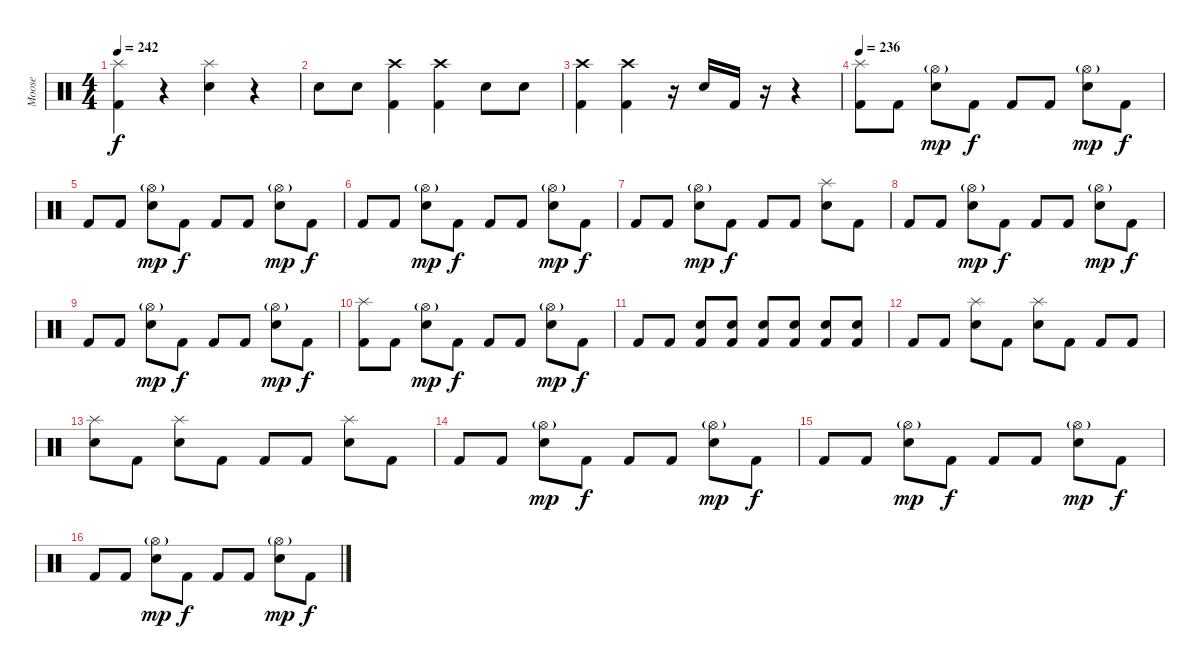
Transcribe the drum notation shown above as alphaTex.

\track ("Moose" "Moose") {instrument percussion}
\staff {score}
\articulation defaults
\ts (4 4)
\tempo 242
\clef neutral
\ks c
("Splash (hit)" "Kick (hit) 2").4{dy f} r.4 ("Splash (hit)" "Electric Snare (hit)").4 r.4 |
"Electric Snare (hit)".8 "Electric Snare (hit)".8 ("Crash high (hit)" "Kick (hit) 2").4 ("Crash high (hit)" "Kick (hit) 2").4 "Electric Snare (hit)".8 "Electric Snare (hit)".8 |
("Crash high (hit)" "Kick (hit) 2").4 ("Crash high (hit)" "Kick (hit) 2").4 r.16 "Electric Snare (hit)".16 "Kick (hit) 2".16 r.16 r.4 |
\tempo 236
("Splash (hit)" "Kick (hit) 2").8 "Kick (hit) 2".8 ("Hi-Hat (open)"{g} "Electric Snare (hit)").8{dy mp} "Kick (hit) 2".8{dy f} "Kick (hit) 2".8 "Kick (hit) 2".8 ("Hi-Hat (open)"{g} "Electric Snare (hit)").8{dy mp} "Kick (hit) 2".8{dy f} |
"Kick (hit) 2".8 "Kick (hit) 2".8 ("Hi-Hat (open)"{g} "Electric Snare (hit)").8{dy mp} "Kick (hit) 2".8{dy f} "Kick (hit) 2".8 "Kick (hit) 2".8 ("Hi-Hat (open)"{g} "Electric Snare (hit)").8{dy mp} "Kick (hit) 2".8{dy f} |
"Kick (hit) 2".8 "Kick (hit) 2".8 ("Hi-Hat (open)"{g} "Electric Snare (hit)").8{dy mp} "Kick (hit) 2".8{dy f} "Kick (hit) 2".8 "Kick (hit) 2".8 ("Hi-Hat (open)"{g} "Electric Snare (hit)").8{dy mp} "Kick (hit) 2".8{dy f} |
"Kick (hit) 2".8 "Kick (hit) 2".8 ("Hi-Hat (open)"{g} "Electric Snare (hit)").8{dy mp} "Kick (hit) 2".8{dy f} "Kick (hit) 2".8 "Kick (hit) 2".8 ("Splash (hit)" "Electric Snare (hit)").8 "Kick (hit) 2".8 |
"Kick (hit) 2".8 "Kick (hit) 2".8 ("Hi-Hat (open)"{g} "Electric Snare (hit)").8{dy mp} "Kick (hit) 2".8{dy f} "Kick (hit) 2".8 "Kick (hit) 2".8 ("Hi-Hat (open)"{g} "Electric Snare (hit)").8{dy mp} "Kick (hit) 2".8{dy f} |
"Kick (hit) 2".8 "Kick (hit) 2".8 ("Hi-Hat (open)"{g} "Electric Snare (hit)").8{dy mp} "Kick (hit) 2".8{dy f} "Kick (hit) 2".8 "Kick (hit) 2".8 ("Hi-Hat (open)"{g} "Electric Snare (hit)").8{dy mp} "Kick (hit) 2".8{dy f} |
("Splash (hit)" "Kick (hit) 2").8 "Kick (hit) 2".8 ("Hi-Hat (open)"{g} "Electric Snare (hit)").8{dy mp} "Kick (hit) 2".8{dy f} "Kick (hit) 2".8 "Kick (hit) 2".8 ("Hi-Hat (open)"{g} "Electric Snare (hit)").8{dy mp} "Kick (hit) 2".8{dy f} |
"Kick (hit) 2".8 "Kick (hit) 2".8 ("Electric Snare (hit)" "Kick (hit) 2").8 ("Electric Snare (hit)" "Kick (hit) 2").8 ("Electric Snare (hit)" "Kick (hit) 2").8 ("Electric Snare (hit)" "Kick (hit) 2").8 ("Electric Snare (hit)" "Kick (hit) 2").8 ("Electric Snare (hit)" "Kick (hit) 2").8 |
"Kick (hit) 2".8 "Kick (hit) 2".8 ("Splash (hit)" "Electric Snare (hit)").8 "Kick (hit) 2".8 ("Splash (hit)" "Electric Snare (hit)").8 "Kick (hit) 2".8 "Kick (hit) 2".8 "Kick (hit) 2".8 |
("Splash (hit)" "Electric Snare (hit)").8 "Kick (hit) 2".8 ("Splash (hit)" "Electric Snare (hit)").8 "Kick (hit) 2".8 "Kick (hit) 2".8 "Kick (hit) 2".8 ("Splash (hit)" "Electric Snare (hit)").8 "Kick (hit) 2".8 |
"Kick (hit) 2".8 "Kick (hit) 2".8 ("Hi-Hat (open)"{g} "Electric Snare (hit)").8{dy mp} "Kick (hit) 2".8{dy f} "Kick (hit) 2".8 "Kick (hit) 2".8 ("Hi-Hat (open)"{g} "Electric Snare (hit)").8{dy mp} "Kick (hit) 2".8{dy f} |
"Kick (hit) 2".8 "Kick (hit) 2".8 ("Hi-Hat (open)"{g} "Electric Snare (hit)").8{dy mp} "Kick (hit) 2".8{dy f} "Kick (hit) 2".8 "Kick (hit) 2".8 ("Hi-Hat (open)"{g} "Electric Snare (hit)").8{dy mp} "Kick (hit) 2".8{dy f} |
"Kick (hit) 2".8 "Kick (hit) 2".8 ("Hi-Hat (open)"{g} "Electric Snare (hit)").8{dy mp} "Kick (hit) 2".8{dy f} "Kick (hit) 2".8 "Kick (hit) 2".8 ("Hi-Hat (open)"{g} "Electric Snare (hit)").8{dy mp} "Kick (hit) 2".8{dy f}
